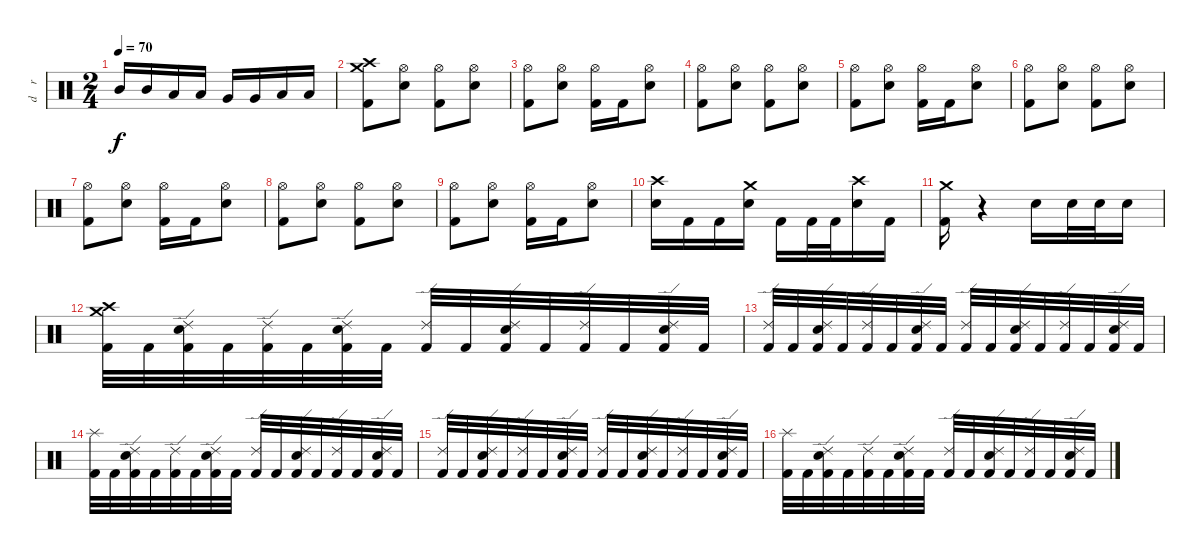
\track ("d    r     u    m    s" "d    r    ") {instrument percussion}
\staff {score}
\articulation defaults
\ts (2 4)
\tempo 70
\clef neutral
\ks c "Mid Tom (hit)".16{dy f} "Mid Tom (hit)".16 "Low Tom (hit)".16 "Low Tom (hit)".16 "Very Low Tom (hit)".16 "Very Low Tom (hit)".16 "Low Floor Tom (hit)".16 "Low Floor Tom (hit)".16
|
("Crash high (hit)" "Crash medium (hit)" "Kick (hit) 2").8 ("Hi-Hat (open)" "Electric Snare (hit)").8 ("Hi-Hat (open)" "Kick (hit) 2").8 ("Hi-Hat (open)" "Electric Snare (hit)").8 |
("Hi-Hat (open)" "Kick (hit) 2").8 ("Hi-Hat (open)" "Electric Snare (hit)").8 ("Hi-Hat (open)" "Kick (hit) 2").16 "Kick (hit) 2".16 ("Hi-Hat (open)" "Electric Snare (hit)").8 |
("Hi-Hat (open)" "Kick (hit) 2").8 ("Hi-Hat (open)" "Electric Snare (hit)").8 ("Hi-Hat (open)" "Kick (hit) 2").8 ("Hi-Hat (open)" "Electric Snare (hit)").8 |
("Hi-Hat (open)" "Kick (hit) 2").8 ("Hi-Hat (open)" "Electric Snare (hit)").8 ("Hi-Hat (open)" "Kick (hit) 2").16 "Kick (hit) 2".16 ("Hi-Hat (open)" "Electric Snare (hit)").8 |
("Hi-Hat (open)" "Kick (hit) 2").8 ("Hi-Hat (open)" "Electric Snare (hit)").8 ("Hi-Hat (open)" "Kick (hit) 2").8 ("Hi-Hat (open)" "Electric Snare (hit)").8 |
("Hi-Hat (open)" "Kick (hit) 2").8 ("Hi-Hat (open)" "Electric Snare (hit)").8 ("Hi-Hat (open)" "Kick (hit) 2").16 "Kick (hit) 2".16 ("Hi-Hat (open)" "Electric Snare (hit)").8 |
("Hi-Hat (open)" "Kick (hit) 2").8 ("Hi-Hat (open)" "Electric Snare (hit)").8 ("Hi-Hat (open)" "Kick (hit) 2").8 ("Hi-Hat (open)" "Electric Snare (hit)").8 |
("Hi-Hat (open)" "Kick (hit) 2").8 ("Hi-Hat (open)" "Electric Snare (hit)").8 ("Hi-Hat (open)" "Kick (hit) 2").16 "Kick (hit) 2".16 ("Hi-Hat (open)" "Electric Snare (hit)").8 |
("Crash high (hit)" "Electric Snare (hit)").16 "Kick (hit) 2".16 "Kick (hit) 2".16 ("Crash medium (hit)" "Electric Snare (hit)").16 "Kick (hit) 2".16 "Kick (hit) 2".32 "Kick (hit) 2".32 ("Crash high (hit)" "Electric Snare (hit)").16 "Kick (hit) 2".16 |
("Crash medium (hit)" "Kick (hit) 2").16 r.4 "Electric Snare (hit)".16 "Electric Snare (hit)".32 "Electric Snare (hit)".32 "Electric Snare (hit)".16 |
("Crash high (hit)" "Crash medium (hit)" "Kick (hit) 2").32 "Kick (hit) 2".32 ("Ride (edge) 2" "Electric Snare (hit)" "Kick (hit) 2").32 "Kick (hit) 2".32 ("Ride (edge) 2" "Kick (hit) 2").32 "Kick (hit) 2".32 ("Ride (edge) 2" "Electric Snare (hit)" "Kick (hit) 2").32 "Kick (hit) 2".32 ("Ride (edge) 2" "Kick (hit) 2").32 "Kick (hit) 2".32 ("Ride (edge) 2" "Electric Snare (hit)" "Kick (hit) 2").32 "Kick (hit) 2".32 ("Ride (edge) 2" "Kick (hit) 2").32 "Kick (hit) 2".32 ("Ride (edge) 2" "Electric Snare (hit)" "Kick (hit) 2").32 "Kick (hit) 2".32 |
("Ride (edge) 2" "Kick (hit) 2").32 "Kick (hit) 2".32 ("Ride (edge) 2" "Electric Snare (hit)" "Kick (hit) 2").32 "Kick (hit) 2".32 ("Ride (edge) 2" "Kick (hit) 2").32 "Kick (hit) 2".32 ("Ride (edge) 2" "Electric Snare (hit)" "Kick (hit) 2").32 "Kick (hit) 2".32 ("Ride (edge) 2" "Kick (hit) 2").32 "Kick (hit) 2".32 ("Ride (edge) 2" "Electric Snare (hit)" "Kick (hit) 2").32 "Kick (hit) 2".32 ("Ride (edge) 2" "Kick (hit) 2").32 "Kick (hit) 2".32 ("Ride (edge) 2" "Electric Snare (hit)" "Kick (hit) 2").32 "Kick (hit) 2".32 |
("Splash (hit)" "Kick (hit) 2").32 "Kick (hit) 2".32 ("Ride (edge) 2" "Electric Snare (hit)" "Kick (hit) 2").32 "Kick (hit) 2".32 ("Ride (edge) 2" "Kick (hit) 2").32 "Kick (hit) 2".32 ("Ride (edge) 2" "Electric Snare (hit)" "Kick (hit) 2").32 "Kick (hit) 2".32 ("Ride (edge) 2" "Kick (hit) 2").32 "Kick (hit) 2".32 ("Ride (edge) 2" "Electric Snare (hit)" "Kick (hit) 2").32 "Kick (hit) 2".32 ("Ride (edge) 2" "Kick (hit) 2").32 "Kick (hit) 2".32 ("Ride (edge) 2" "Electric Snare (hit)" "Kick (hit) 2").32 "Kick (hit) 2".32 |
("Ride (edge) 2" "Kick (hit) 2").32 "Kick (hit) 2".32 ("Ride (edge) 2" "Electric Snare (hit)" "Kick (hit) 2").32 "Kick (hit) 2".32 ("Ride (edge) 2" "Kick (hit) 2").32 "Kick (hit) 2".32 ("Ride (edge) 2" "Electric Snare (hit)" "Kick (hit) 2").32 "Kick (hit) 2".32 ("Ride (edge) 2" "Kick (hit) 2").32 "Kick (hit) 2".32 ("Ride (edge) 2" "Electric Snare (hit)" "Kick (hit) 2").32 "Kick (hit) 2".32 ("Ride (edge) 2" "Kick (hit) 2").32 "Kick (hit) 2".32 ("Ride (edge) 2" "Electric Snare (hit)" "Kick (hit) 2").32 "Kick (hit) 2".32 |
("Splash (hit)" "Kick (hit) 2").32 "Kick (hit) 2".32 ("Ride (edge) 2" "Electric Snare (hit)" "Kick (hit) 2").32 "Kick (hit) 2".32 ("Ride (edge) 2" "Kick (hit) 2").32 "Kick (hit) 2".32 ("Ride (edge) 2" "Electric Snare (hit)" "Kick (hit) 2").32 "Kick (hit) 2".32 ("Ride (edge) 2" "Kick (hit) 2").32 "Kick (hit) 2".32 ("Ride (edge) 2" "Electric Snare (hit)" "Kick (hit) 2").32 "Kick (hit) 2".32 ("Ride (edge) 2" "Kick (hit) 2").32 "Kick (hit) 2".32 ("Ride (edge) 2" "Electric Snare (hit)" "Kick (hit) 2").32 "Kick (hit) 2".32
